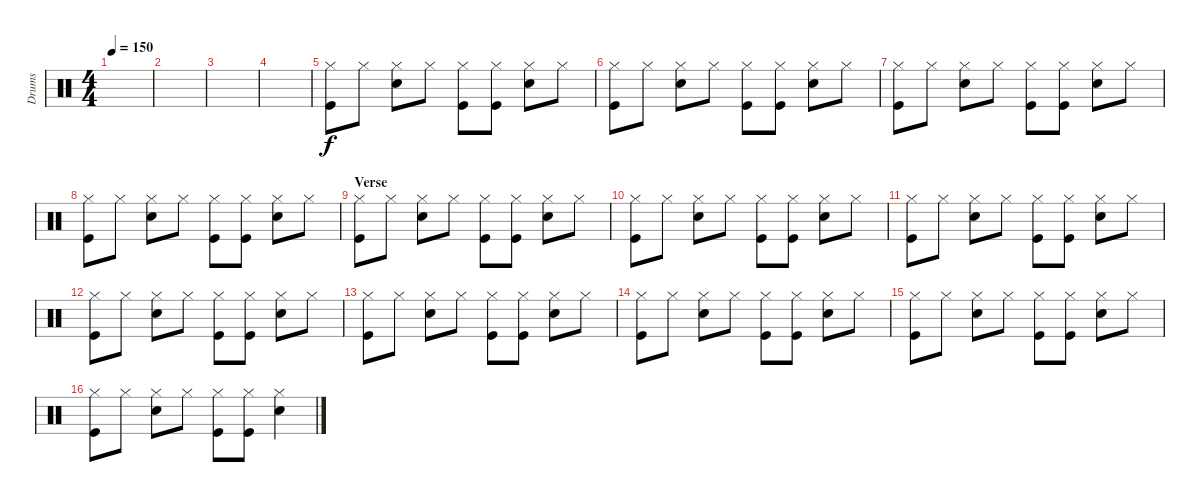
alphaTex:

\track ("Drums" "Drums") {instrument percussion}
\staff {score}
\articulation defaults
\ts (4 4)
\tempo 150
\clef neutral
\ks c
|
|
|
|
("Hi-Hat (closed)" "Kick (hit)").8 "Hi-Hat (closed)".8 ("Hi-Hat (closed)" "Snare (hit) 2").8 "Hi-Hat (closed)".8 ("Hi-Hat (closed)" "Kick (hit)").8 ("Hi-Hat (closed)" "Kick (hit)").8 ("Hi-Hat (closed)" "Snare (hit) 2").8 "Hi-Hat (closed)".8 |
("Hi-Hat (closed)" "Kick (hit)").8 "Hi-Hat (closed)".8 ("Hi-Hat (closed)" "Snare (hit) 2").8 "Hi-Hat (closed)".8 ("Hi-Hat (closed)" "Kick (hit)").8 ("Hi-Hat (closed)" "Kick (hit)").8 ("Hi-Hat (closed)" "Snare (hit) 2").8 "Hi-Hat (closed)".8 |
("Hi-Hat (closed)" "Kick (hit)").8 "Hi-Hat (closed)".8 ("Hi-Hat (closed)" "Snare (hit) 2").8 "Hi-Hat (closed)".8 ("Hi-Hat (closed)" "Kick (hit)").8 ("Hi-Hat (closed)" "Kick (hit)").8 ("Hi-Hat (closed)" "Snare (hit) 2").8 "Hi-Hat (closed)".8 |
("Hi-Hat (closed)" "Kick (hit)").8 "Hi-Hat (closed)".8 ("Hi-Hat (closed)" "Snare (hit) 2").8 "Hi-Hat (closed)".8 ("Hi-Hat (closed)" "Kick (hit)").8 ("Hi-Hat (closed)" "Kick (hit)").8 ("Hi-Hat (closed)" "Snare (hit) 2").8 "Hi-Hat (closed)".8 |
\section ("" "Verse")
("Hi-Hat (closed)" "Kick (hit)").8 "Hi-Hat (closed)".8 ("Hi-Hat (closed)" "Snare (hit) 2").8 "Hi-Hat (closed)".8 ("Hi-Hat (closed)" "Kick (hit)").8 ("Hi-Hat (closed)" "Kick (hit)").8 ("Hi-Hat (closed)" "Snare (hit) 2").8 "Hi-Hat (closed)".8 |
("Hi-Hat (closed)" "Kick (hit)").8 "Hi-Hat (closed)".8 ("Hi-Hat (closed)" "Snare (hit) 2").8 "Hi-Hat (closed)".8 ("Hi-Hat (closed)" "Kick (hit)").8 ("Hi-Hat (closed)" "Kick (hit)").8 ("Hi-Hat (closed)" "Snare (hit) 2").8 "Hi-Hat (closed)".8 |
("Hi-Hat (closed)" "Kick (hit)").8 "Hi-Hat (closed)".8 ("Hi-Hat (closed)" "Snare (hit) 2").8 "Hi-Hat (closed)".8 ("Hi-Hat (closed)" "Kick (hit)").8 ("Hi-Hat (closed)" "Kick (hit)").8 ("Hi-Hat (closed)" "Snare (hit) 2").8 "Hi-Hat (closed)".8 |
("Hi-Hat (closed)" "Kick (hit)").8 "Hi-Hat (closed)".8 ("Hi-Hat (closed)" "Snare (hit) 2").8 "Hi-Hat (closed)".8 ("Hi-Hat (closed)" "Kick (hit)").8 ("Hi-Hat (closed)" "Kick (hit)").8 ("Hi-Hat (closed)" "Snare (hit) 2").8 "Hi-Hat (closed)".8 |
("Hi-Hat (closed)" "Kick (hit)").8 "Hi-Hat (closed)".8 ("Hi-Hat (closed)" "Snare (hit) 2").8 "Hi-Hat (closed)".8 ("Hi-Hat (closed)" "Kick (hit)").8 ("Hi-Hat (closed)" "Kick (hit)").8 ("Hi-Hat (closed)" "Snare (hit) 2").8 "Hi-Hat (closed)".8 |
("Hi-Hat (closed)" "Kick (hit)").8 "Hi-Hat (closed)".8 ("Hi-Hat (closed)" "Snare (hit) 2").8 "Hi-Hat (closed)".8 ("Hi-Hat (closed)" "Kick (hit)").8 ("Hi-Hat (closed)" "Kick (hit)").8 ("Hi-Hat (closed)" "Snare (hit) 2").8 "Hi-Hat (closed)".8 |
("Hi-Hat (closed)" "Kick (hit)").8 "Hi-Hat (closed)".8 ("Hi-Hat (closed)" "Snare (hit) 2").8 "Hi-Hat (closed)".8 ("Hi-Hat (closed)" "Kick (hit)").8 ("Hi-Hat (closed)" "Kick (hit)").8 ("Hi-Hat (closed)" "Snare (hit) 2").8 "Hi-Hat (closed)".8 |
("Hi-Hat (closed)" "Kick (hit)").8 "Hi-Hat (closed)".8 ("Hi-Hat (closed)" "Snare (hit) 2").8 "Hi-Hat (closed)".8 ("Hi-Hat (closed)" "Kick (hit)").8 ("Hi-Hat (closed)" "Kick (hit)").8 ("Hi-Hat (closed)" "Snare (hit) 2").4
